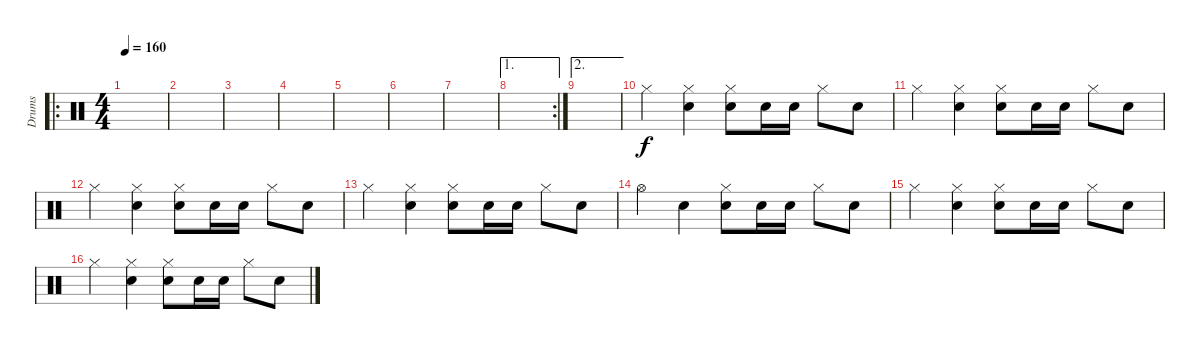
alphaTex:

\track ("Drums" "Drums") {instrument percussion}
\staff {score}
\articulation defaults
\ro
\ts (4 4)
\tempo 160
\clef neutral
\ks c
|
|
|
|
|
|
|
\ae 1
\rc 2
|
\ae 2
|
"Hi-Hat (closed)".4 ("Hi-Hat (closed)" "Electric Snare (hit)").4 ("Hi-Hat (closed)" "Electric Snare (hit)").8 "Electric Snare (hit)".16 "Electric Snare (hit)".16 "Hi-Hat (closed)".8 "Electric Snare (hit)".8 |
"Hi-Hat (closed)".4 ("Hi-Hat (closed)" "Electric Snare (hit)").4 ("Hi-Hat (closed)" "Electric Snare (hit)").8 "Electric Snare (hit)".16 "Electric Snare (hit)".16 "Hi-Hat (closed)".8 "Electric Snare (hit)".8 |
"Hi-Hat (closed)".4 ("Hi-Hat (closed)" "Electric Snare (hit)").4 ("Hi-Hat (closed)" "Electric Snare (hit)").8 "Electric Snare (hit)".16 "Electric Snare (hit)".16 "Hi-Hat (closed)".8 "Electric Snare (hit)".8 |
"Hi-Hat (closed)".4 ("Hi-Hat (closed)" "Electric Snare (hit)").4 ("Hi-Hat (closed)" "Electric Snare (hit)").8 "Electric Snare (hit)".16 "Electric Snare (hit)".16 "Hi-Hat (closed)".8 "Electric Snare (hit)".8 |
"Hi-Hat (open)".4 "Electric Snare (hit)".4 ("Hi-Hat (closed)" "Electric Snare (hit)").8 "Electric Snare (hit)".16 "Electric Snare (hit)".16 "Hi-Hat (closed)".8 "Electric Snare (hit)".8 |
"Hi-Hat (closed)".4 ("Hi-Hat (closed)" "Electric Snare (hit)").4 ("Hi-Hat (closed)" "Electric Snare (hit)").8 "Electric Snare (hit)".16 "Electric Snare (hit)".16 "Hi-Hat (closed)".8 "Electric Snare (hit)".8 |
"Hi-Hat (closed)".4 ("Hi-Hat (closed)" "Electric Snare (hit)").4 ("Hi-Hat (closed)" "Electric Snare (hit)").8 "Electric Snare (hit)".16 "Electric Snare (hit)".16 "Hi-Hat (closed)".8 "Electric Snare (hit)".8
